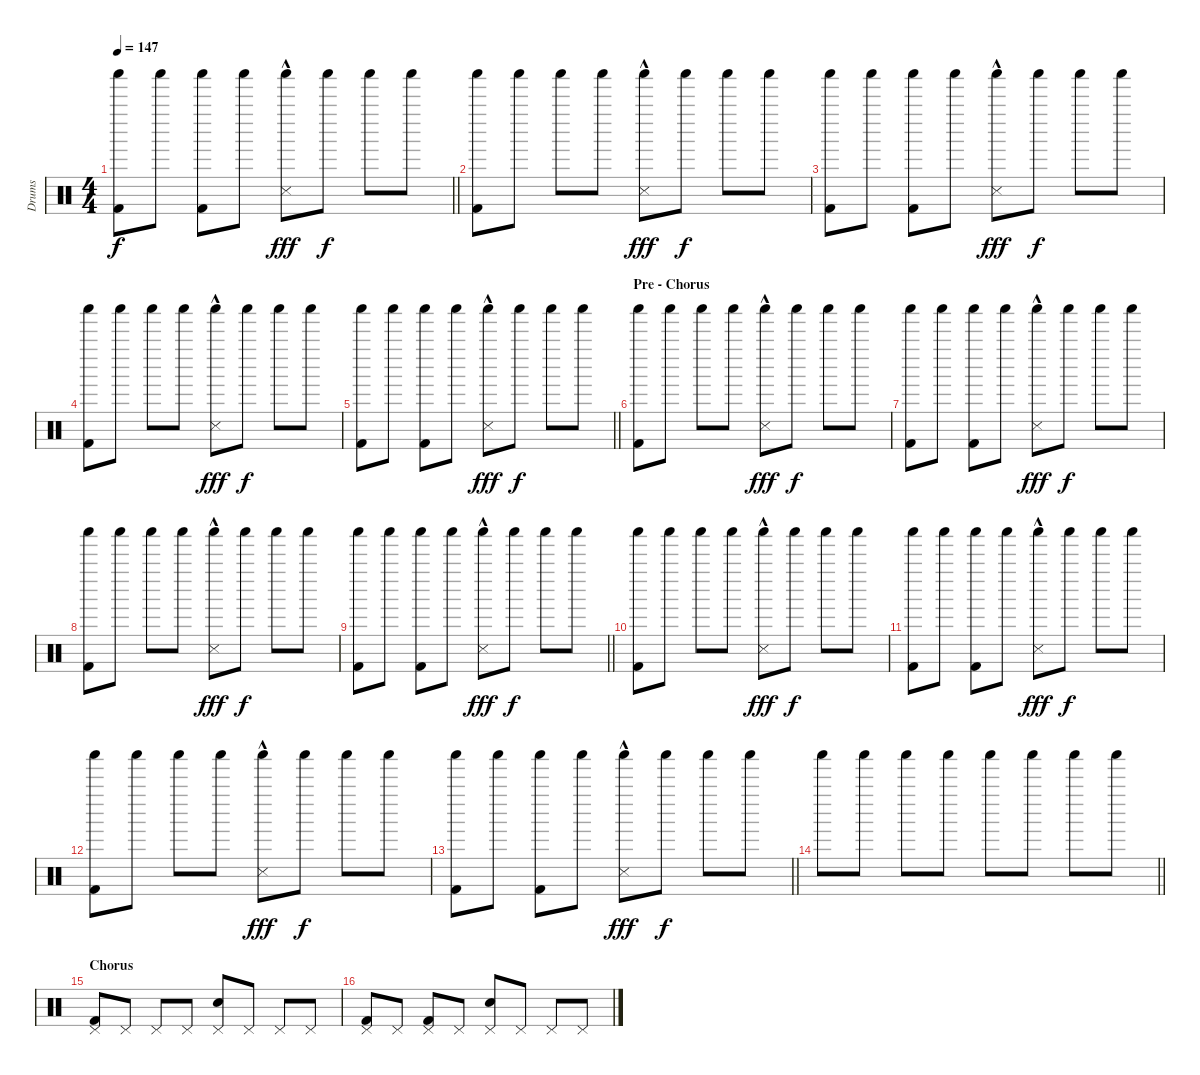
\track ("Drums" "Drums") {instrument percussion}
\staff {score}
\articulation defaults
\ts (4 4)
\tempo 147
\clef neutral
\barLineRight lightlight
\ks c
("Kick (hit) 2" "Shaker (hit)").8{dy f} "Shaker (hit)".8 ("Kick (hit) 2" "Shaker (hit)").8 "Shaker (hit)".8 ("Snare (side stick) 3"{hac} "Shaker (hit)").8{dy fff} "Shaker (hit)".8{dy f} "Shaker (hit)".8 "Shaker (hit)".8 |
("Kick (hit) 2" "Shaker (hit)").8 "Shaker (hit)".8 "Shaker (hit)".8 "Shaker (hit)".8 ("Snare (side stick) 3"{hac} "Shaker (hit)").8{dy fff} "Shaker (hit)".8{dy f} "Shaker (hit)".8 "Shaker (hit)".8 |
("Kick (hit) 2" "Shaker (hit)").8 "Shaker (hit)".8 ("Kick (hit) 2" "Shaker (hit)").8 "Shaker (hit)".8 ("Snare (side stick) 3"{hac} "Shaker (hit)").8{dy fff} "Shaker (hit)".8{dy f} "Shaker (hit)".8 "Shaker (hit)".8 |
("Kick (hit) 2" "Shaker (hit)").8 "Shaker (hit)".8 "Shaker (hit)".8 "Shaker (hit)".8 ("Snare (side stick) 3"{hac} "Shaker (hit)").8{dy fff} "Shaker (hit)".8{dy f} "Shaker (hit)".8 "Shaker (hit)".8 |
\barLineRight lightlight
("Kick (hit) 2" "Shaker (hit)").8 "Shaker (hit)".8 ("Kick (hit) 2" "Shaker (hit)").8 "Shaker (hit)".8 ("Snare (side stick) 3"{hac} "Shaker (hit)").8{dy fff} "Shaker (hit)".8{dy f} "Shaker (hit)".8 "Shaker (hit)".8 |
\section ("" "Pre - Chorus")
("Kick (hit) 2" "Shaker (hit)").8 "Shaker (hit)".8 "Shaker (hit)".8 "Shaker (hit)".8 ("Snare (side stick) 3"{hac} "Shaker (hit)").8{dy fff} "Shaker (hit)".8{dy f} "Shaker (hit)".8 "Shaker (hit)".8 |
("Kick (hit) 2" "Shaker (hit)").8 "Shaker (hit)".8 ("Kick (hit) 2" "Shaker (hit)").8 "Shaker (hit)".8 ("Snare (side stick) 3"{hac} "Shaker (hit)").8{dy fff} "Shaker (hit)".8{dy f} "Shaker (hit)".8 "Shaker (hit)".8 |
("Kick (hit) 2" "Shaker (hit)").8 "Shaker (hit)".8 "Shaker (hit)".8 "Shaker (hit)".8 ("Snare (side stick) 3"{hac} "Shaker (hit)").8{dy fff} "Shaker (hit)".8{dy f} "Shaker (hit)".8 "Shaker (hit)".8 |
\barLineRight lightlight
("Kick (hit) 2" "Shaker (hit)").8 "Shaker (hit)".8 ("Kick (hit) 2" "Shaker (hit)").8 "Shaker (hit)".8 ("Snare (side stick) 3"{hac} "Shaker (hit)").8{dy fff} "Shaker (hit)".8{dy f} "Shaker (hit)".8 "Shaker (hit)".8 |
("Kick (hit) 2" "Shaker (hit)").8 "Shaker (hit)".8 "Shaker (hit)".8 "Shaker (hit)".8 ("Snare (side stick) 3"{hac} "Shaker (hit)").8{dy fff} "Shaker (hit)".8{dy f} "Shaker (hit)".8 "Shaker (hit)".8 |
("Kick (hit) 2" "Shaker (hit)").8 "Shaker (hit)".8 ("Kick (hit) 2" "Shaker (hit)").8 "Shaker (hit)".8 ("Snare (side stick) 3"{hac} "Shaker (hit)").8{dy fff} "Shaker (hit)".8{dy f} "Shaker (hit)".8 "Shaker (hit)".8 |
("Kick (hit) 2" "Shaker (hit)").8 "Shaker (hit)".8 "Shaker (hit)".8 "Shaker (hit)".8 ("Snare (side stick) 3"{hac} "Shaker (hit)").8{dy fff} "Shaker (hit)".8{dy f} "Shaker (hit)".8 "Shaker (hit)".8 |
\barLineRight lightlight
("Kick (hit) 2" "Shaker (hit)").8 "Shaker (hit)".8 ("Kick (hit) 2" "Shaker (hit)").8 "Shaker (hit)".8 ("Snare (side stick) 3"{hac} "Shaker (hit)").8{dy fff} "Shaker (hit)".8{dy f} "Shaker (hit)".8 "Shaker (hit)".8 |
\barLineRight lightlight "Shaker (hit)".8 "Shaker (hit)".8 "Shaker (hit)".8 "Shaker (hit)".8 "Shaker (hit)".8 "Shaker (hit)".8 "Shaker (hit)".8 "Shaker (hit)".8
|
\section ("" "Chorus")
("Kick (hit) 2" "Pedal Hi-Hat (hit)").8 "Pedal Hi-Hat (hit)".8 "Pedal Hi-Hat (hit)".8 "Pedal Hi-Hat (hit)".8 ("Electric Snare (hit)" "Pedal Hi-Hat (hit)").8 "Pedal Hi-Hat (hit)".8 "Pedal Hi-Hat (hit)".8 "Pedal Hi-Hat (hit)".8 |
("Kick (hit) 2" "Pedal Hi-Hat (hit)").8 "Pedal Hi-Hat (hit)".8 ("Kick (hit) 2" "Pedal Hi-Hat (hit)").8 "Pedal Hi-Hat (hit)".8 ("Electric Snare (hit)" "Pedal Hi-Hat (hit)").8 "Pedal Hi-Hat (hit)".8 "Pedal Hi-Hat (hit)".8 "Pedal Hi-Hat (hit)".8
